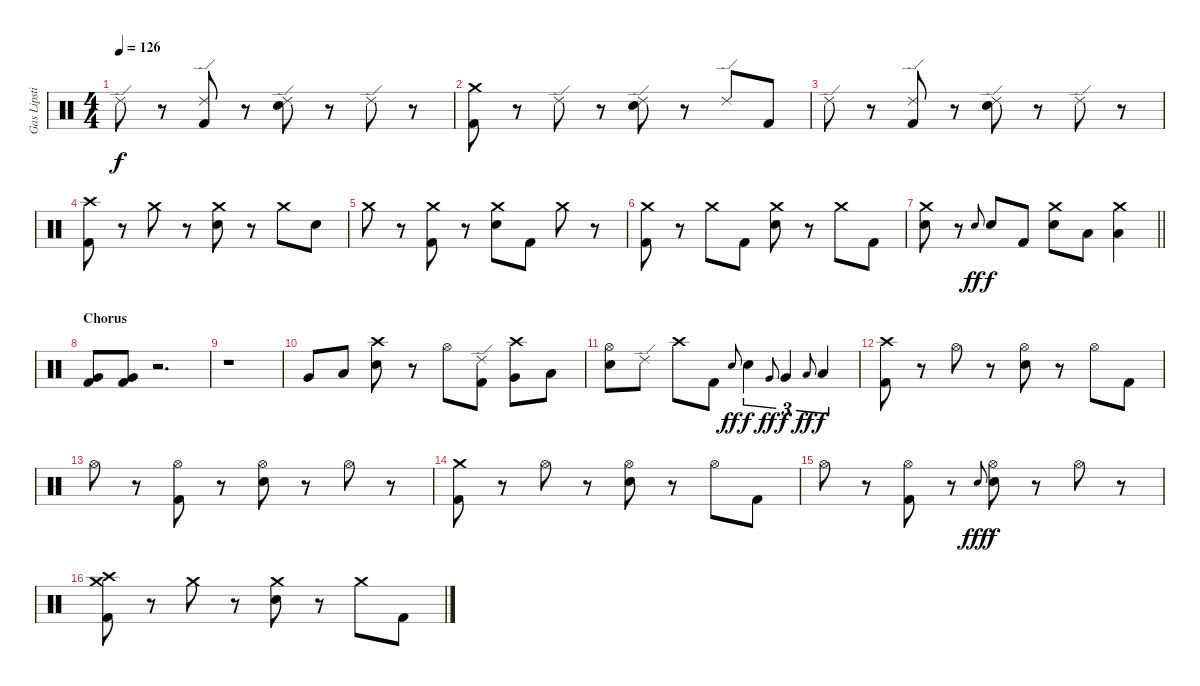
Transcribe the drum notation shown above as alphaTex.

\track ("Gas Lipstick (Drums)" "Gas Lipsti") {instrument percussion}
\staff {score}
\articulation defaults
\ts (4 4)
\tempo 126
\clef neutral
\ks c "Ride (edge) 2".8{dy f}
r.8 ("Ride (edge) 2" "Kick (hit) 2").8 r.8 ("Ride (edge) 2" "Snare (hit) 2").8 r.8 "Ride (edge) 2".8 r.8 |
("Crash medium (hit)" "Kick (hit) 2").8 r.8 "Ride (edge) 2".8 r.8 ("Ride (edge) 2" "Snare (hit) 2").8 r.8 "Ride (edge) 2".8 "Kick (hit) 2".8 |
"Ride (edge) 2".8 r.8 ("Ride (edge) 2" "Kick (hit) 2").8 r.8 ("Ride (edge) 2" "Snare (hit) 2").8 r.8 "Ride (edge) 2".8 r.8 |
("Crash high (hit)" "Kick (hit) 2").8 r.8 "Crash medium (hit)".8 r.8 ("Crash medium (hit)" "Snare (hit) 2").8 r.8 "Crash medium (hit)".8 "Snare (hit) 2".8 |
"Crash medium (hit)".8 r.8 ("Crash medium (hit)" "Kick (hit) 2").8 r.8 ("Crash medium (hit)" "Snare (hit) 2").8 "Kick (hit) 2".8 "Crash medium (hit)".8 r.8 |
("Crash medium (hit)" "Kick (hit) 2").8 r.8 "Crash medium (hit)".8 "Kick (hit) 2".8 ("Crash medium (hit)" "Snare (hit) 2").8 r.8 "Crash medium (hit)".8 "Kick (hit) 2".8 |
\barLineRight lightlight
("Crash medium (hit)" "Snare (hit) 2").8 r.8 "Snare (hit) 2".8{gr onbeat dy ff} "Snare (hit) 2".8{dy f} "Kick (hit) 2".8 ("Crash medium (hit)" "Snare (hit) 2").8 "Low Floor Tom (hit)".8 ("Crash medium (hit)" "Low Floor Tom (hit)").4 |
\section ("" "Chorus")
("Very Low Tom (hit)" "Kick (hit) 2").8 ("Very Low Tom (hit)" "Kick (hit) 2").8 r.2{d} |
r.1 |
"Very Low Tom (hit)".8 "Low Floor Tom (hit)".8 ("Crash high (hit)" "Snare (hit) 2").8 r.8 "Hi-Hat (open)".8 ("Ride (edge) 2" "Kick (hit) 2").8 ("Crash high (hit)" "Very Low Tom (hit)").8 "Low Floor Tom (hit)".8 |
("Hi-Hat (open)" "Snare (hit) 2").8 "Ride (edge) 2".8 "Crash high (hit)".8 "Kick (hit) 2".8 "Snare (hit) 2".8{gr onbeat dy ff} "Snare (hit) 2".4{tu (3 2) dy f} "Very Low Tom (hit)".8{gr onbeat dy ff} "Very Low Tom (hit)".4{tu (3 2) dy f} "Low Floor Tom (hit)".8{gr onbeat dy ff} "Low Floor Tom (hit)".4{tu (3 2) dy f} |
("Crash high (hit)" "Kick (hit) 2").8 r.8 "Hi-Hat (open)".8 r.8 ("Hi-Hat (open)" "Snare (hit) 2").8 r.8 "Hi-Hat (open)".8 "Kick (hit) 2".8 |
"Hi-Hat (open)".8 r.8 ("Hi-Hat (open)" "Kick (hit) 2").8 r.8 ("Hi-Hat (open)" "Snare (hit) 2").8 r.8 "Hi-Hat (open)".8 r.8 |
("Crash medium (hit)" "Kick (hit) 2").8 r.8 "Hi-Hat (open)".8 r.8 ("Hi-Hat (open)" "Snare (hit) 2").8 r.8 "Hi-Hat (open)".8 "Kick (hit) 2".8 |
"Hi-Hat (open)".8 r.8 ("Hi-Hat (open)" "Kick (hit) 2").8 r.8 "Snare (hit) 2".8{gr onbeat dy fff} ("Hi-Hat (open)" "Snare (hit) 2").8{dy f} r.8 "Hi-Hat (open)".8 r.8 |
("Crash high (hit)" "Crash medium (hit)" "Kick (hit) 2").8 r.8 "Crash medium (hit)".8 r.8 ("Crash medium (hit)" "Snare (hit) 2").8 r.8 "Crash medium (hit)".8 "Kick (hit) 2".8
